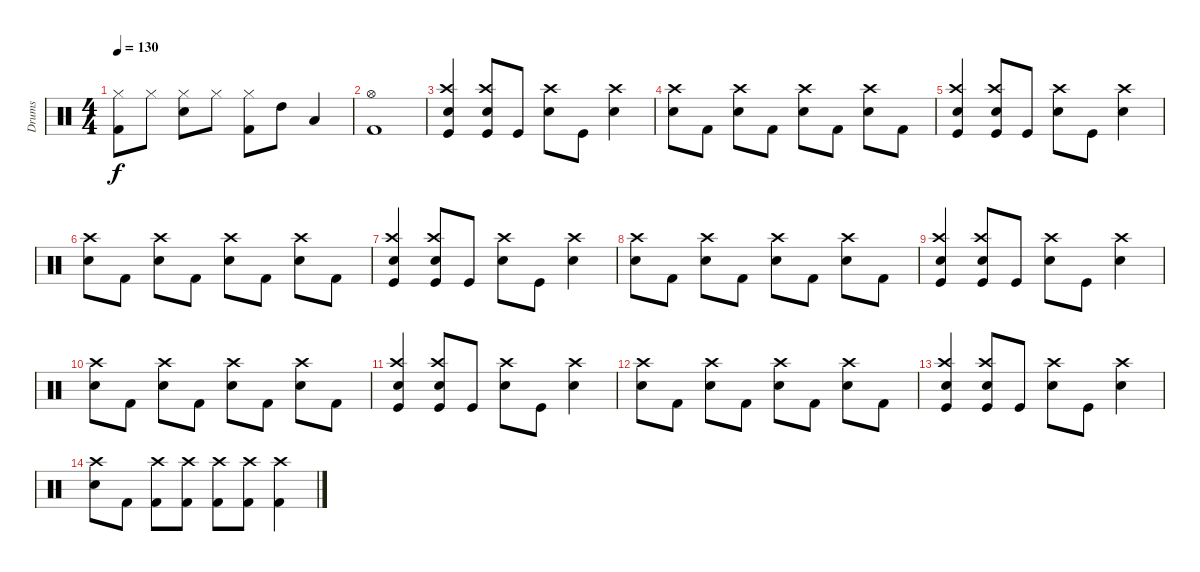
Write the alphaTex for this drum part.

\track ("Drums" "Drums") {instrument percussion}
\staff {score}
\articulation defaults
\ts (4 4)
\tempo 130
\clef neutral
\ks c
("Hi-Hat (closed)" "Kick (hit) 2").8{dy f} "Hi-Hat (closed)".8 ("Hi-Hat (closed)" "Snare (hit) 2").8 "Hi-Hat (closed)".8 ("Hi-Hat (closed)" "Kick (hit) 2").8 "High Tom (hit)".8 "Low Tom (hit)".4 |
("Hi-Hat (open)" "Kick (hit) 2").1 |
("Crash high (hit)" "Snare (hit) 2" "Kick (hit)").4 ("Crash high (hit)" "Snare (hit) 2" "Kick (hit)").8 "Kick (hit)".8 ("Crash high (hit)" "Snare (hit) 2").8 "Kick (hit)".8 ("Crash high (hit)" "Snare (hit) 2").4 |
("Crash high (hit)" "Snare (hit) 2").8 "Kick (hit) 2".8 ("Crash high (hit)" "Snare (hit) 2").8 "Kick (hit) 2".8 ("Crash high (hit)" "Snare (hit) 2").8 "Kick (hit) 2".8 ("Crash high (hit)" "Snare (hit) 2").8 "Kick (hit) 2".8 |
("Crash high (hit)" "Snare (hit) 2" "Kick (hit)").4 ("Crash high (hit)" "Snare (hit) 2" "Kick (hit)").8 "Kick (hit)".8 ("Crash high (hit)" "Snare (hit) 2").8 "Kick (hit)".8 ("Crash high (hit)" "Snare (hit) 2").4 |
("Crash high (hit)" "Snare (hit) 2").8 "Kick (hit) 2".8 ("Crash high (hit)" "Snare (hit) 2").8 "Kick (hit) 2".8 ("Crash high (hit)" "Snare (hit) 2").8 "Kick (hit) 2".8 ("Crash high (hit)" "Snare (hit) 2").8 "Kick (hit) 2".8 |
("Crash high (hit)" "Snare (hit) 2" "Kick (hit)").4 ("Crash high (hit)" "Snare (hit) 2" "Kick (hit)").8 "Kick (hit)".8 ("Crash high (hit)" "Snare (hit) 2").8 "Kick (hit)".8 ("Crash high (hit)" "Snare (hit) 2").4 |
("Crash high (hit)" "Snare (hit) 2").8 "Kick (hit) 2".8 ("Crash high (hit)" "Snare (hit) 2").8 "Kick (hit) 2".8 ("Crash high (hit)" "Snare (hit) 2").8 "Kick (hit) 2".8 ("Crash high (hit)" "Snare (hit) 2").8 "Kick (hit) 2".8 |
("Crash high (hit)" "Snare (hit) 2" "Kick (hit)").4 ("Crash high (hit)" "Snare (hit) 2" "Kick (hit)").8 "Kick (hit)".8 ("Crash high (hit)" "Snare (hit) 2").8 "Kick (hit)".8 ("Crash high (hit)" "Snare (hit) 2").4 |
("Crash high (hit)" "Snare (hit) 2").8 "Kick (hit) 2".8 ("Crash high (hit)" "Snare (hit) 2").8 "Kick (hit) 2".8 ("Crash high (hit)" "Snare (hit) 2").8 "Kick (hit) 2".8 ("Crash high (hit)" "Snare (hit) 2").8 "Kick (hit) 2".8 |
("Crash high (hit)" "Snare (hit) 2" "Kick (hit)").4 ("Crash high (hit)" "Snare (hit) 2" "Kick (hit)").8 "Kick (hit)".8 ("Crash high (hit)" "Snare (hit) 2").8 "Kick (hit)".8 ("Crash high (hit)" "Snare (hit) 2").4 |
("Crash high (hit)" "Snare (hit) 2").8 "Kick (hit) 2".8 ("Crash high (hit)" "Snare (hit) 2").8 "Kick (hit) 2".8 ("Crash high (hit)" "Snare (hit) 2").8 "Kick (hit) 2".8 ("Crash high (hit)" "Snare (hit) 2").8 "Kick (hit) 2".8 |
("Crash high (hit)" "Snare (hit) 2" "Kick (hit)").4 ("Crash high (hit)" "Snare (hit) 2" "Kick (hit)").8 "Kick (hit)".8 ("Crash high (hit)" "Snare (hit) 2").8 "Kick (hit)".8 ("Crash high (hit)" "Snare (hit) 2").4 |
("Crash high (hit)" "Snare (hit) 2").8 "Kick (hit) 2".8 ("Crash high (hit)" "Kick (hit) 2").8 ("Crash high (hit)" "Kick (hit) 2").8 ("Crash high (hit)" "Kick (hit) 2").8 ("Crash high (hit)" "Kick (hit) 2").8 ("Crash high (hit)" "Kick (hit) 2").4
